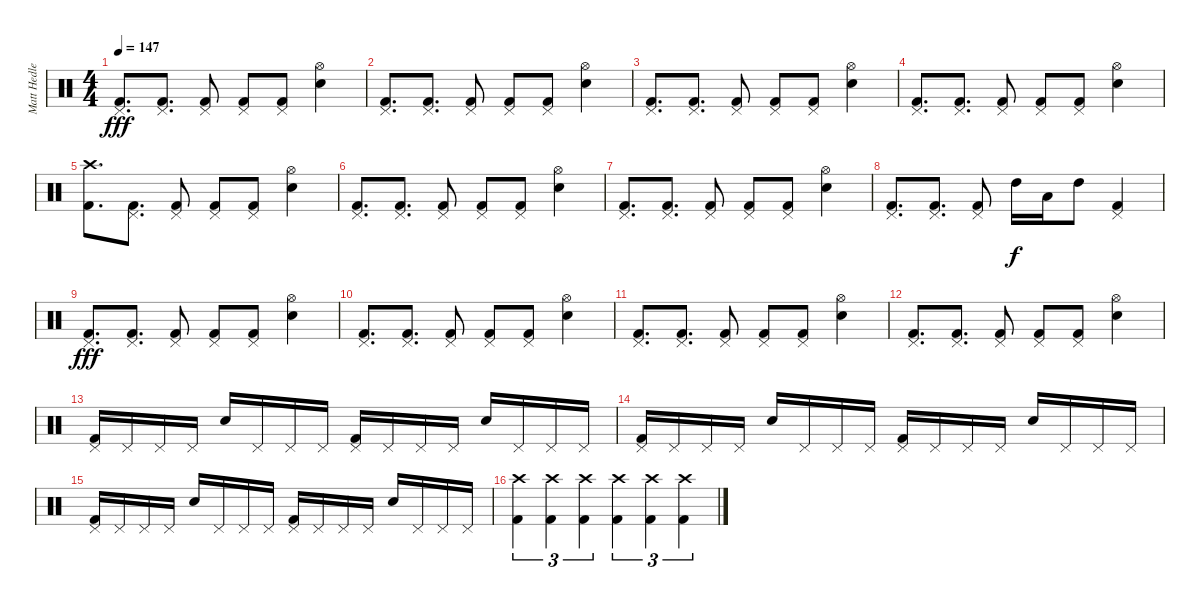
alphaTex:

\track ("Matt Hedlers" "Matt Hedle") {instrument percussion}
\staff {score}
\articulation defaults
\ts (4 4)
\tempo 147
\clef neutral
\ks c
("Pedal Hi-Hat (hit)" "Kick (hit) 2").8{d dy fff} ("Pedal Hi-Hat (hit)" "Kick (hit) 2").8{d} ("Pedal Hi-Hat (hit)" "Kick (hit) 2").8 ("Pedal Hi-Hat (hit)" "Kick (hit) 2").8 ("Pedal Hi-Hat (hit)" "Kick (hit) 2").8 ("Hi-Hat (open)" "Snare (hit) 2").4 |
("Pedal Hi-Hat (hit)" "Kick (hit) 2").8{d} ("Pedal Hi-Hat (hit)" "Kick (hit) 2").8{d} ("Pedal Hi-Hat (hit)" "Kick (hit) 2").8 ("Pedal Hi-Hat (hit)" "Kick (hit) 2").8 ("Pedal Hi-Hat (hit)" "Kick (hit) 2").8 ("Hi-Hat (open)" "Snare (hit) 2").4 |
("Pedal Hi-Hat (hit)" "Kick (hit) 2").8{d} ("Pedal Hi-Hat (hit)" "Kick (hit) 2").8{d} ("Pedal Hi-Hat (hit)" "Kick (hit) 2").8 ("Pedal Hi-Hat (hit)" "Kick (hit) 2").8 ("Pedal Hi-Hat (hit)" "Kick (hit) 2").8 ("Hi-Hat (open)" "Snare (hit) 2").4 |
("Pedal Hi-Hat (hit)" "Kick (hit) 2").8{d} ("Pedal Hi-Hat (hit)" "Kick (hit) 2").8{d} ("Pedal Hi-Hat (hit)" "Kick (hit) 2").8 ("Pedal Hi-Hat (hit)" "Kick (hit) 2").8 ("Pedal Hi-Hat (hit)" "Kick (hit) 2").8 ("Hi-Hat (open)" "Snare (hit) 2").4 |
("Crash high (hit)" "Kick (hit) 2").8{d} ("Pedal Hi-Hat (hit)" "Kick (hit) 2").8{d} ("Pedal Hi-Hat (hit)" "Kick (hit) 2").8 ("Pedal Hi-Hat (hit)" "Kick (hit) 2").8 ("Pedal Hi-Hat (hit)" "Kick (hit) 2").8 ("Hi-Hat (open)" "Snare (hit) 2").4 |
("Pedal Hi-Hat (hit)" "Kick (hit) 2").8{d} ("Pedal Hi-Hat (hit)" "Kick (hit) 2").8{d} ("Pedal Hi-Hat (hit)" "Kick (hit) 2").8 ("Pedal Hi-Hat (hit)" "Kick (hit) 2").8 ("Pedal Hi-Hat (hit)" "Kick (hit) 2").8 ("Hi-Hat (open)" "Snare (hit) 2").4 |
("Pedal Hi-Hat (hit)" "Kick (hit) 2").8{d} ("Pedal Hi-Hat (hit)" "Kick (hit) 2").8{d} ("Pedal Hi-Hat (hit)" "Kick (hit) 2").8 ("Pedal Hi-Hat (hit)" "Kick (hit) 2").8 ("Pedal Hi-Hat (hit)" "Kick (hit) 2").8 ("Hi-Hat (open)" "Snare (hit) 2").4 |
("Pedal Hi-Hat (hit)" "Kick (hit) 2").8{d} ("Pedal Hi-Hat (hit)" "Kick (hit) 2").8{d} ("Pedal Hi-Hat (hit)" "Kick (hit) 2").8 "High Tom (hit)".16{dy f} "Low Tom (hit)".16 "High Tom (hit)".8 ("Pedal Hi-Hat (hit)" "Kick (hit) 2").4 |
("Pedal Hi-Hat (hit)" "Kick (hit) 2").8{d dy fff} ("Pedal Hi-Hat (hit)" "Kick (hit) 2").8{d} ("Pedal Hi-Hat (hit)" "Kick (hit) 2").8 ("Pedal Hi-Hat (hit)" "Kick (hit) 2").8 ("Pedal Hi-Hat (hit)" "Kick (hit) 2").8 ("Hi-Hat (open)" "Snare (hit) 2").4 |
("Pedal Hi-Hat (hit)" "Kick (hit) 2").8{d} ("Pedal Hi-Hat (hit)" "Kick (hit) 2").8{d} ("Pedal Hi-Hat (hit)" "Kick (hit) 2").8 ("Pedal Hi-Hat (hit)" "Kick (hit) 2").8 ("Pedal Hi-Hat (hit)" "Kick (hit) 2").8 ("Hi-Hat (open)" "Snare (hit) 2").4 |
("Pedal Hi-Hat (hit)" "Kick (hit) 2").8{d} ("Pedal Hi-Hat (hit)" "Kick (hit) 2").8{d} ("Pedal Hi-Hat (hit)" "Kick (hit) 2").8 ("Pedal Hi-Hat (hit)" "Kick (hit) 2").8 ("Pedal Hi-Hat (hit)" "Kick (hit) 2").8 ("Hi-Hat (open)" "Snare (hit) 2").4 |
("Pedal Hi-Hat (hit)" "Kick (hit) 2").8{d} ("Pedal Hi-Hat (hit)" "Kick (hit) 2").8{d} ("Pedal Hi-Hat (hit)" "Kick (hit) 2").8 ("Pedal Hi-Hat (hit)" "Kick (hit) 2").8 ("Pedal Hi-Hat (hit)" "Kick (hit) 2").8 ("Hi-Hat (open)" "Snare (hit) 2").4 |
("Pedal Hi-Hat (hit)" "Kick (hit) 2").16 "Pedal Hi-Hat (hit)".16 "Pedal Hi-Hat (hit)".16 "Pedal Hi-Hat (hit)".16 "Snare (hit) 2".16 "Pedal Hi-Hat (hit)".16 "Pedal Hi-Hat (hit)".16 "Pedal Hi-Hat (hit)".16 ("Pedal Hi-Hat (hit)" "Kick (hit) 2").16 "Pedal Hi-Hat (hit)".16 "Pedal Hi-Hat (hit)".16 "Pedal Hi-Hat (hit)".16 "Snare (hit) 2".16 "Pedal Hi-Hat (hit)".16 "Pedal Hi-Hat (hit)".16 "Pedal Hi-Hat (hit)".16 |
("Pedal Hi-Hat (hit)" "Kick (hit) 2").16 "Pedal Hi-Hat (hit)".16 "Pedal Hi-Hat (hit)".16 "Pedal Hi-Hat (hit)".16 "Snare (hit) 2".16 "Pedal Hi-Hat (hit)".16 "Pedal Hi-Hat (hit)".16 "Pedal Hi-Hat (hit)".16 ("Pedal Hi-Hat (hit)" "Kick (hit) 2").16 "Pedal Hi-Hat (hit)".16 "Pedal Hi-Hat (hit)".16 "Pedal Hi-Hat (hit)".16 "Snare (hit) 2".16 "Pedal Hi-Hat (hit)".16 "Pedal Hi-Hat (hit)".16 "Pedal Hi-Hat (hit)".16 |
("Pedal Hi-Hat (hit)" "Kick (hit) 2").16 "Pedal Hi-Hat (hit)".16 "Pedal Hi-Hat (hit)".16 "Pedal Hi-Hat (hit)".16 "Snare (hit) 2".16 "Pedal Hi-Hat (hit)".16 "Pedal Hi-Hat (hit)".16 "Pedal Hi-Hat (hit)".16 ("Pedal Hi-Hat (hit)" "Kick (hit) 2").16 "Pedal Hi-Hat (hit)".16 "Pedal Hi-Hat (hit)".16 "Pedal Hi-Hat (hit)".16 "Snare (hit) 2".16 "Pedal Hi-Hat (hit)".16 "Pedal Hi-Hat (hit)".16 "Pedal Hi-Hat (hit)".16 |
("Crash high (hit)" "Kick (hit) 2").4{tu (3 2)} ("Crash high (hit)" "Kick (hit) 2").4{tu (3 2)} ("Crash high (hit)" "Kick (hit) 2").4{tu (3 2)} ("Crash high (hit)" "Kick (hit) 2").4{tu (3 2)} ("Crash high (hit)" "Kick (hit) 2").4{tu (3 2)} ("Crash high (hit)" "Kick (hit) 2").4{tu (3 2)}
